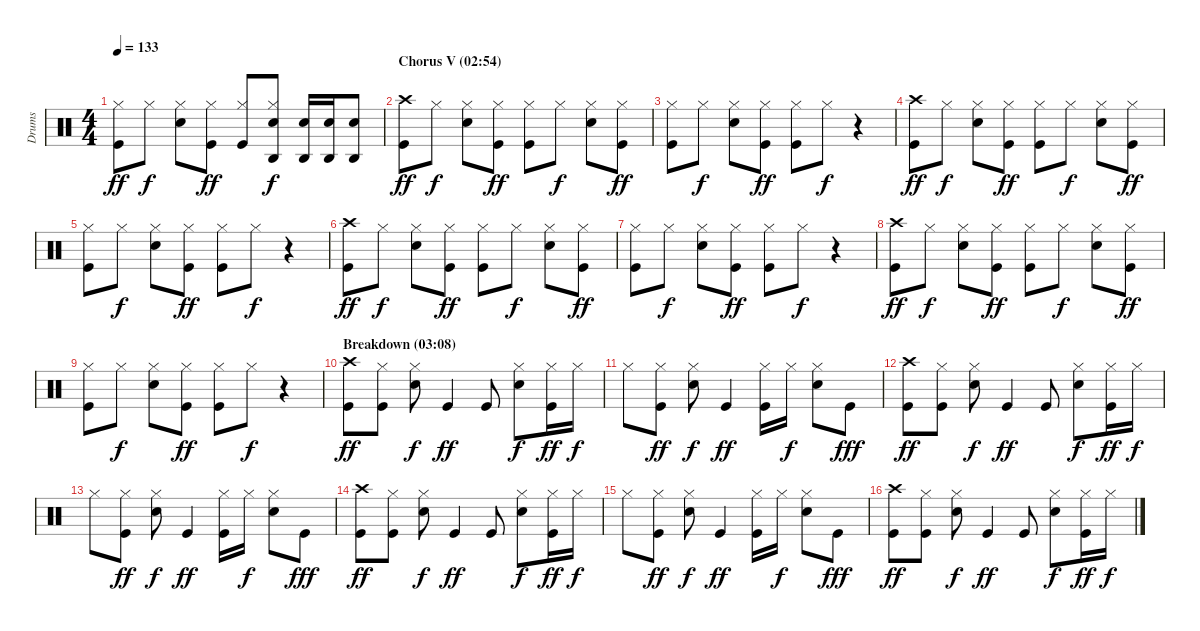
\track ("Drums" "Drums") {instrument percussion}
\staff {score}
\articulation defaults
\ts (4 4)
\tempo 133
\clef neutral
\ks c
("Hi-Hat (closed)" "Kick (hit)").8{dy ff} "Hi-Hat (closed)".8{dy f} ("Hi-Hat (closed)" "Electric Snare (hit)").8 ("Hi-Hat (closed)" "Kick (hit)").8{dy ff} ("Hi-Hat (closed)" "Kick (hit)").8 ("Agogo high (hit)" "Hi-Hat (closed)" "Electric Snare (hit)").8{dy f} ("Agogo high (hit)" "Electric Snare (hit)").16 ("Agogo high (hit)" "Electric Snare (hit)").16 ("Agogo high (hit)" "Electric Snare (hit)").8 |
\section ("" "Chorus V (02:54)")
("Crash high (hit)" "Kick (hit)").8{dy ff} "Hi-Hat (closed)".8{dy f} ("Hi-Hat (closed)" "Electric Snare (hit)").8 ("Hi-Hat (closed)" "Kick (hit)").8{dy ff} ("Hi-Hat (closed)" "Kick (hit)").8 "Hi-Hat (closed)".8{dy f} ("Hi-Hat (closed)" "Electric Snare (hit)").8 ("Hi-Hat (closed)" "Kick (hit)").8{dy ff} |
("Hi-Hat (closed)" "Kick (hit)").8 "Hi-Hat (closed)".8{dy f} ("Hi-Hat (closed)" "Electric Snare (hit)").8 ("Hi-Hat (closed)" "Kick (hit)").8{dy ff} ("Hi-Hat (closed)" "Kick (hit)").8 "Hi-Hat (closed)".8{dy f} r.4 |
("Crash high (hit)" "Kick (hit)").8{dy ff} "Hi-Hat (closed)".8{dy f} ("Hi-Hat (closed)" "Electric Snare (hit)").8 ("Hi-Hat (closed)" "Kick (hit)").8{dy ff} ("Hi-Hat (closed)" "Kick (hit)").8 "Hi-Hat (closed)".8{dy f} ("Hi-Hat (closed)" "Electric Snare (hit)").8 ("Hi-Hat (closed)" "Kick (hit)").8{dy ff} |
("Hi-Hat (closed)" "Kick (hit)").8 "Hi-Hat (closed)".8{dy f} ("Hi-Hat (closed)" "Electric Snare (hit)").8 ("Hi-Hat (closed)" "Kick (hit)").8{dy ff} ("Hi-Hat (closed)" "Kick (hit)").8 "Hi-Hat (closed)".8{dy f} r.4 |
("Crash high (hit)" "Kick (hit)").8{dy ff} "Hi-Hat (closed)".8{dy f} ("Hi-Hat (closed)" "Electric Snare (hit)").8 ("Hi-Hat (closed)" "Kick (hit)").8{dy ff} ("Hi-Hat (closed)" "Kick (hit)").8 "Hi-Hat (closed)".8{dy f} ("Hi-Hat (closed)" "Electric Snare (hit)").8 ("Hi-Hat (closed)" "Kick (hit)").8{dy ff} |
("Hi-Hat (closed)" "Kick (hit)").8 "Hi-Hat (closed)".8{dy f} ("Hi-Hat (closed)" "Electric Snare (hit)").8 ("Hi-Hat (closed)" "Kick (hit)").8{dy ff} ("Hi-Hat (closed)" "Kick (hit)").8 "Hi-Hat (closed)".8{dy f} r.4 |
("Crash high (hit)" "Kick (hit)").8{dy ff} "Hi-Hat (closed)".8{dy f} ("Hi-Hat (closed)" "Electric Snare (hit)").8 ("Hi-Hat (closed)" "Kick (hit)").8{dy ff} ("Hi-Hat (closed)" "Kick (hit)").8 "Hi-Hat (closed)".8{dy f} ("Hi-Hat (closed)" "Electric Snare (hit)").8 ("Hi-Hat (closed)" "Kick (hit)").8{dy ff} |
("Hi-Hat (closed)" "Kick (hit)").8 "Hi-Hat (closed)".8{dy f} ("Hi-Hat (closed)" "Electric Snare (hit)").8 ("Hi-Hat (closed)" "Kick (hit)").8{dy ff} ("Hi-Hat (closed)" "Kick (hit)").8 "Hi-Hat (closed)".8{dy f} r.4 |
\section ("" "Breakdown (03:08)")
("Crash high (hit)" "Kick (hit)").8{dy ff} ("Hi-Hat (closed)" "Kick (hit)").8 ("Hi-Hat (closed)" "Electric Snare (hit)").8{dy f} "Kick (hit)".4{dy ff} "Kick (hit)".8 ("Hi-Hat (closed)" "Electric Snare (hit)").8{dy f} ("Hi-Hat (closed)" "Kick (hit)").16{dy ff} "Hi-Hat (closed)".16{dy f} |
"Hi-Hat (closed)".8 ("Hi-Hat (closed)" "Kick (hit)").8{dy ff} ("Hi-Hat (closed)" "Electric Snare (hit)").8{dy f} "Kick (hit)".4{dy ff} ("Hi-Hat (closed)" "Kick (hit)").16 "Hi-Hat (closed)".16{dy f} ("Hi-Hat (closed)" "Electric Snare (hit)").8 "Kick (hit)".8{dy fff} |
("Crash high (hit)" "Kick (hit)").8{dy ff} ("Hi-Hat (closed)" "Kick (hit)").8 ("Hi-Hat (closed)" "Electric Snare (hit)").8{dy f} "Kick (hit)".4{dy ff} "Kick (hit)".8 ("Hi-Hat (closed)" "Electric Snare (hit)").8{dy f} ("Hi-Hat (closed)" "Kick (hit)").16{dy ff} "Hi-Hat (closed)".16{dy f} |
"Hi-Hat (closed)".8 ("Hi-Hat (closed)" "Kick (hit)").8{dy ff} ("Hi-Hat (closed)" "Electric Snare (hit)").8{dy f} "Kick (hit)".4{dy ff} ("Hi-Hat (closed)" "Kick (hit)").16 "Hi-Hat (closed)".16{dy f} ("Hi-Hat (closed)" "Electric Snare (hit)").8 "Kick (hit)".8{dy fff} |
("Crash high (hit)" "Kick (hit)").8{dy ff} ("Hi-Hat (closed)" "Kick (hit)").8 ("Hi-Hat (closed)" "Electric Snare (hit)").8{dy f} "Kick (hit)".4{dy ff} "Kick (hit)".8 ("Hi-Hat (closed)" "Electric Snare (hit)").8{dy f} ("Hi-Hat (closed)" "Kick (hit)").16{dy ff} "Hi-Hat (closed)".16{dy f} |
"Hi-Hat (closed)".8 ("Hi-Hat (closed)" "Kick (hit)").8{dy ff} ("Hi-Hat (closed)" "Electric Snare (hit)").8{dy f} "Kick (hit)".4{dy ff} ("Hi-Hat (closed)" "Kick (hit)").16 "Hi-Hat (closed)".16{dy f} ("Hi-Hat (closed)" "Electric Snare (hit)").8 "Kick (hit)".8{dy fff} |
("Crash high (hit)" "Kick (hit)").8{dy ff} ("Hi-Hat (closed)" "Kick (hit)").8 ("Hi-Hat (closed)" "Electric Snare (hit)").8{dy f} "Kick (hit)".4{dy ff} "Kick (hit)".8 ("Hi-Hat (closed)" "Electric Snare (hit)").8{dy f} ("Hi-Hat (closed)" "Kick (hit)").16{dy ff} "Hi-Hat (closed)".16{dy f}
